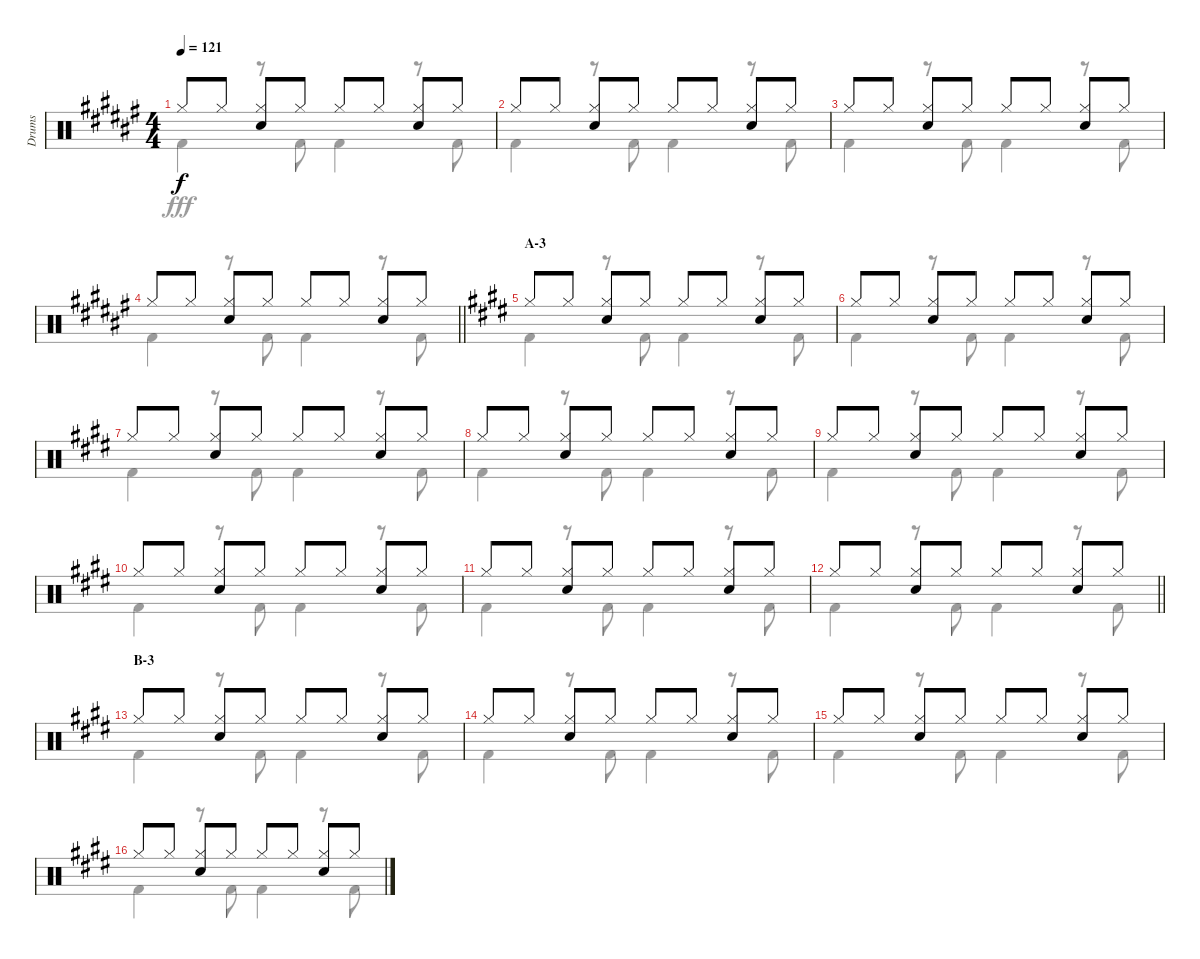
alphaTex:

\track ("Drums" "Drums") {instrument percussion}
\staff {score}
\articulation defaults
\voice
\ts (4 4)
\tempo 121
\clef neutral
\ks f# "Hi-Hat (closed)".8{dy f} "Hi-Hat (closed)".8
("Hi-Hat (closed)" "Snare (hit) 2").8 "Hi-Hat (closed)".8 "Hi-Hat (closed)".8 "Hi-Hat (closed)".8 ("Hi-Hat (closed)" "Snare (hit) 2").8 "Hi-Hat (closed)".8 |
"Hi-Hat (closed)".8 "Hi-Hat (closed)".8 ("Hi-Hat (closed)" "Snare (hit) 2").8 "Hi-Hat (closed)".8 "Hi-Hat (closed)".8 "Hi-Hat (closed)".8 ("Hi-Hat (closed)" "Snare (hit) 2").8 "Hi-Hat (closed)".8 |
"Hi-Hat (closed)".8 "Hi-Hat (closed)".8 ("Hi-Hat (closed)" "Snare (hit) 2").8 "Hi-Hat (closed)".8 "Hi-Hat (closed)".8 "Hi-Hat (closed)".8 ("Hi-Hat (closed)" "Snare (hit) 2").8 "Hi-Hat (closed)".8 |
\barLineRight lightlight "Hi-Hat (closed)".8 "Hi-Hat (closed)".8
("Hi-Hat (closed)" "Snare (hit) 2").8 "Hi-Hat (closed)".8 "Hi-Hat (closed)".8 "Hi-Hat (closed)".8 ("Hi-Hat (closed)" "Snare (hit) 2").8 "Hi-Hat (closed)".8 |
\section ("" "A-3")
\ks e "Hi-Hat (closed)".8 "Hi-Hat (closed)".8
("Hi-Hat (closed)" "Snare (hit) 2").8 "Hi-Hat (closed)".8 "Hi-Hat (closed)".8 "Hi-Hat (closed)".8 ("Hi-Hat (closed)" "Snare (hit) 2").8 "Hi-Hat (closed)".8 |
"Hi-Hat (closed)".8 "Hi-Hat (closed)".8 ("Hi-Hat (closed)" "Snare (hit) 2").8 "Hi-Hat (closed)".8 "Hi-Hat (closed)".8 "Hi-Hat (closed)".8 ("Hi-Hat (closed)" "Snare (hit) 2").8 "Hi-Hat (closed)".8 |
"Hi-Hat (closed)".8 "Hi-Hat (closed)".8 ("Hi-Hat (closed)" "Snare (hit) 2").8 "Hi-Hat (closed)".8 "Hi-Hat (closed)".8 "Hi-Hat (closed)".8 ("Hi-Hat (closed)" "Snare (hit) 2").8 "Hi-Hat (closed)".8 |
"Hi-Hat (closed)".8 "Hi-Hat (closed)".8 ("Hi-Hat (closed)" "Snare (hit) 2").8 "Hi-Hat (closed)".8 "Hi-Hat (closed)".8 "Hi-Hat (closed)".8 ("Hi-Hat (closed)" "Snare (hit) 2").8 "Hi-Hat (closed)".8 |
"Hi-Hat (closed)".8 "Hi-Hat (closed)".8 ("Hi-Hat (closed)" "Snare (hit) 2").8 "Hi-Hat (closed)".8 "Hi-Hat (closed)".8 "Hi-Hat (closed)".8 ("Hi-Hat (closed)" "Snare (hit) 2").8 "Hi-Hat (closed)".8 |
"Hi-Hat (closed)".8 "Hi-Hat (closed)".8 ("Hi-Hat (closed)" "Snare (hit) 2").8 "Hi-Hat (closed)".8 "Hi-Hat (closed)".8 "Hi-Hat (closed)".8 ("Hi-Hat (closed)" "Snare (hit) 2").8 "Hi-Hat (closed)".8 |
"Hi-Hat (closed)".8 "Hi-Hat (closed)".8 ("Hi-Hat (closed)" "Snare (hit) 2").8 "Hi-Hat (closed)".8 "Hi-Hat (closed)".8 "Hi-Hat (closed)".8 ("Hi-Hat (closed)" "Snare (hit) 2").8 "Hi-Hat (closed)".8 |
\barLineRight lightlight "Hi-Hat (closed)".8 "Hi-Hat (closed)".8
("Hi-Hat (closed)" "Snare (hit) 2").8 "Hi-Hat (closed)".8 "Hi-Hat (closed)".8 "Hi-Hat (closed)".8 ("Hi-Hat (closed)" "Snare (hit) 2").8 "Hi-Hat (closed)".8 |
\section ("" "B-3")
"Hi-Hat (closed)".8 "Hi-Hat (closed)".8 ("Hi-Hat (closed)" "Snare (hit) 2").8 "Hi-Hat (closed)".8 "Hi-Hat (closed)".8 "Hi-Hat (closed)".8 ("Hi-Hat (closed)" "Snare (hit) 2").8 "Hi-Hat (closed)".8 |
"Hi-Hat (closed)".8 "Hi-Hat (closed)".8 ("Hi-Hat (closed)" "Snare (hit) 2").8 "Hi-Hat (closed)".8 "Hi-Hat (closed)".8 "Hi-Hat (closed)".8 ("Hi-Hat (closed)" "Snare (hit) 2").8 "Hi-Hat (closed)".8 |
"Hi-Hat (closed)".8 "Hi-Hat (closed)".8 ("Hi-Hat (closed)" "Snare (hit) 2").8 "Hi-Hat (closed)".8 "Hi-Hat (closed)".8 "Hi-Hat (closed)".8 ("Hi-Hat (closed)" "Snare (hit) 2").8 "Hi-Hat (closed)".8 |
"Hi-Hat (closed)".8 "Hi-Hat (closed)".8 ("Hi-Hat (closed)" "Snare (hit) 2").8 "Hi-Hat (closed)".8 "Hi-Hat (closed)".8 "Hi-Hat (closed)".8 ("Hi-Hat (closed)" "Snare (hit) 2").8 "Hi-Hat (closed)".8
\voice
\clef neutral
\ottava regular
\simile none
\ks f# "Kick (hit) 2".4{dy fff}
r.8 "Kick (hit) 2".8 "Kick (hit) 2".4 r.8 "Kick (hit) 2".8 |
"Kick (hit) 2".4 r.8 "Kick (hit) 2".8 "Kick (hit) 2".4 r.8 "Kick (hit) 2".8 |
"Kick (hit) 2".4 r.8 "Kick (hit) 2".8 "Kick (hit) 2".4 r.8 "Kick (hit) 2".8 |
\barLineRight lightlight "Kick (hit) 2".4
r.8 "Kick (hit) 2".8 "Kick (hit) 2".4 r.8 "Kick (hit) 2".8 |
\ks e "Kick (hit) 2".4
r.8 "Kick (hit) 2".8 "Kick (hit) 2".4 r.8 "Kick (hit) 2".8 |
"Kick (hit) 2".4 r.8 "Kick (hit) 2".8 "Kick (hit) 2".4 r.8 "Kick (hit) 2".8 |
"Kick (hit) 2".4 r.8 "Kick (hit) 2".8 "Kick (hit) 2".4 r.8 "Kick (hit) 2".8 |
"Kick (hit) 2".4 r.8 "Kick (hit) 2".8 "Kick (hit) 2".4 r.8 "Kick (hit) 2".8 |
"Kick (hit) 2".4 r.8 "Kick (hit) 2".8 "Kick (hit) 2".4 r.8 "Kick (hit) 2".8 |
"Kick (hit) 2".4 r.8 "Kick (hit) 2".8 "Kick (hit) 2".4 r.8 "Kick (hit) 2".8 |
"Kick (hit) 2".4 r.8 "Kick (hit) 2".8 "Kick (hit) 2".4 r.8 "Kick (hit) 2".8 |
\barLineRight lightlight "Kick (hit) 2".4
r.8 "Kick (hit) 2".8 "Kick (hit) 2".4 r.8 "Kick (hit) 2".8 |
"Kick (hit) 2".4 r.8 "Kick (hit) 2".8 "Kick (hit) 2".4 r.8 "Kick (hit) 2".8 |
"Kick (hit) 2".4 r.8 "Kick (hit) 2".8 "Kick (hit) 2".4 r.8 "Kick (hit) 2".8 |
"Kick (hit) 2".4 r.8 "Kick (hit) 2".8 "Kick (hit) 2".4 r.8 "Kick (hit) 2".8 |
"Kick (hit) 2".4 r.8 "Kick (hit) 2".8 "Kick (hit) 2".4 r.8 "Kick (hit) 2".8
